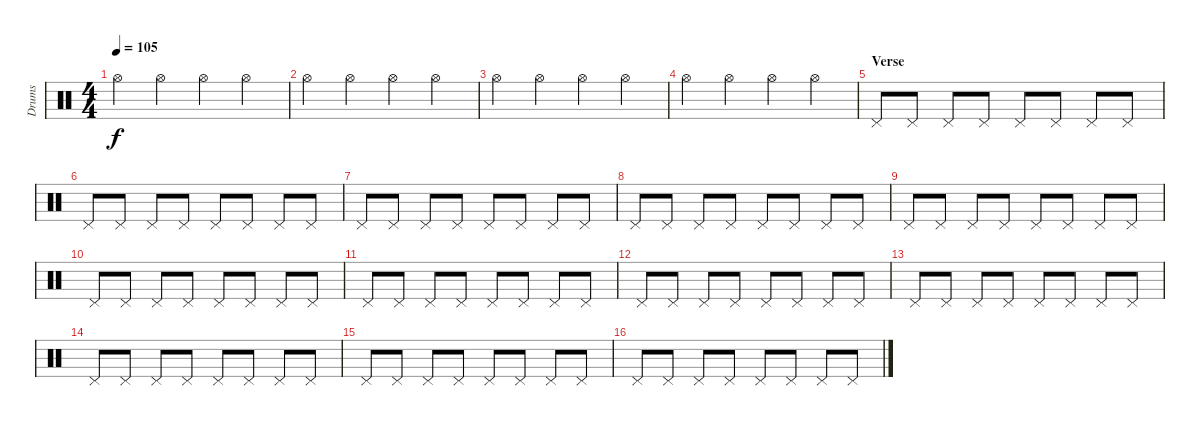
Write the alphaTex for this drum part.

\track ("Drums" "Drums") {instrument percussion}
\staff {score}
\articulation defaults
\ts (4 4)
\tempo 105
\clef neutral
\ks c "Hi-Hat (open)".4{dy f} "Hi-Hat (open)".4 "Hi-Hat (open)".4 "Hi-Hat (open)".4
|
"Hi-Hat (open)".4 "Hi-Hat (open)".4 "Hi-Hat (open)".4 "Hi-Hat (open)".4 |
"Hi-Hat (open)".4 "Hi-Hat (open)".4 "Hi-Hat (open)".4 "Hi-Hat (open)".4 |
"Hi-Hat (open)".4 "Hi-Hat (open)".4 "Hi-Hat (open)".4 "Hi-Hat (open)".4 |
\section ("" "Verse")
"Pedal Hi-Hat (hit)".8 "Pedal Hi-Hat (hit)".8 "Pedal Hi-Hat (hit)".8 "Pedal Hi-Hat (hit)".8 "Pedal Hi-Hat (hit)".8 "Pedal Hi-Hat (hit)".8 "Pedal Hi-Hat (hit)".8 "Pedal Hi-Hat (hit)".8 |
"Pedal Hi-Hat (hit)".8 "Pedal Hi-Hat (hit)".8 "Pedal Hi-Hat (hit)".8 "Pedal Hi-Hat (hit)".8 "Pedal Hi-Hat (hit)".8 "Pedal Hi-Hat (hit)".8 "Pedal Hi-Hat (hit)".8 "Pedal Hi-Hat (hit)".8 |
"Pedal Hi-Hat (hit)".8 "Pedal Hi-Hat (hit)".8 "Pedal Hi-Hat (hit)".8 "Pedal Hi-Hat (hit)".8 "Pedal Hi-Hat (hit)".8 "Pedal Hi-Hat (hit)".8 "Pedal Hi-Hat (hit)".8 "Pedal Hi-Hat (hit)".8 |
"Pedal Hi-Hat (hit)".8 "Pedal Hi-Hat (hit)".8 "Pedal Hi-Hat (hit)".8 "Pedal Hi-Hat (hit)".8 "Pedal Hi-Hat (hit)".8 "Pedal Hi-Hat (hit)".8 "Pedal Hi-Hat (hit)".8 "Pedal Hi-Hat (hit)".8 |
"Pedal Hi-Hat (hit)".8 "Pedal Hi-Hat (hit)".8 "Pedal Hi-Hat (hit)".8 "Pedal Hi-Hat (hit)".8 "Pedal Hi-Hat (hit)".8 "Pedal Hi-Hat (hit)".8 "Pedal Hi-Hat (hit)".8 "Pedal Hi-Hat (hit)".8 |
"Pedal Hi-Hat (hit)".8 "Pedal Hi-Hat (hit)".8 "Pedal Hi-Hat (hit)".8 "Pedal Hi-Hat (hit)".8 "Pedal Hi-Hat (hit)".8 "Pedal Hi-Hat (hit)".8 "Pedal Hi-Hat (hit)".8 "Pedal Hi-Hat (hit)".8 |
"Pedal Hi-Hat (hit)".8 "Pedal Hi-Hat (hit)".8 "Pedal Hi-Hat (hit)".8 "Pedal Hi-Hat (hit)".8 "Pedal Hi-Hat (hit)".8 "Pedal Hi-Hat (hit)".8 "Pedal Hi-Hat (hit)".8 "Pedal Hi-Hat (hit)".8 |
"Pedal Hi-Hat (hit)".8 "Pedal Hi-Hat (hit)".8 "Pedal Hi-Hat (hit)".8 "Pedal Hi-Hat (hit)".8 "Pedal Hi-Hat (hit)".8 "Pedal Hi-Hat (hit)".8 "Pedal Hi-Hat (hit)".8 "Pedal Hi-Hat (hit)".8 |
"Pedal Hi-Hat (hit)".8 "Pedal Hi-Hat (hit)".8 "Pedal Hi-Hat (hit)".8 "Pedal Hi-Hat (hit)".8 "Pedal Hi-Hat (hit)".8 "Pedal Hi-Hat (hit)".8 "Pedal Hi-Hat (hit)".8 "Pedal Hi-Hat (hit)".8 |
"Pedal Hi-Hat (hit)".8 "Pedal Hi-Hat (hit)".8 "Pedal Hi-Hat (hit)".8 "Pedal Hi-Hat (hit)".8 "Pedal Hi-Hat (hit)".8 "Pedal Hi-Hat (hit)".8 "Pedal Hi-Hat (hit)".8 "Pedal Hi-Hat (hit)".8 |
"Pedal Hi-Hat (hit)".8 "Pedal Hi-Hat (hit)".8 "Pedal Hi-Hat (hit)".8 "Pedal Hi-Hat (hit)".8 "Pedal Hi-Hat (hit)".8 "Pedal Hi-Hat (hit)".8 "Pedal Hi-Hat (hit)".8 "Pedal Hi-Hat (hit)".8 |
"Pedal Hi-Hat (hit)".8 "Pedal Hi-Hat (hit)".8 "Pedal Hi-Hat (hit)".8 "Pedal Hi-Hat (hit)".8 "Pedal Hi-Hat (hit)".8 "Pedal Hi-Hat (hit)".8 "Pedal Hi-Hat (hit)".8 "Pedal Hi-Hat (hit)".8
